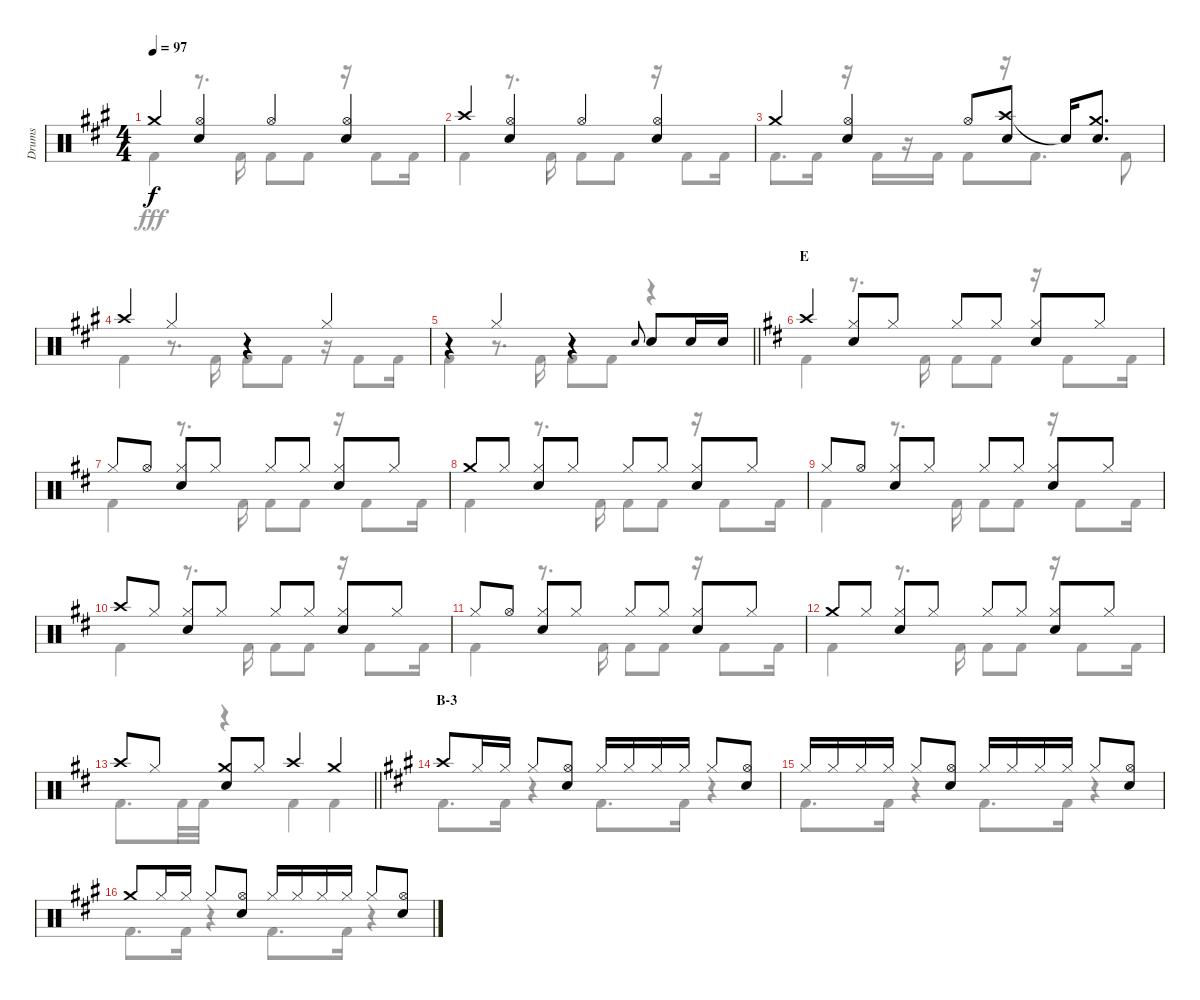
\track ("Drums" "Drums") {instrument percussion}
\staff {score}
\articulation defaults
\voice
\ts (4 4)
\tempo 97
\clef neutral
\ks a "Crash medium (hit)".4{dy f}
("Hi-Hat (open)" "Snare (hit) 2").4 "Hi-Hat (open)".4 ("Hi-Hat (open)" "Snare (hit) 2").4 |
"Crash high (hit)".4 ("Hi-Hat (open)" "Snare (hit) 2").4 "Hi-Hat (open)".4 ("Hi-Hat (open)" "Snare (hit) 2").4 |
"Crash medium (hit)".4 ("Hi-Hat (open)" "Snare (hit) 2").4 "Hi-Hat (open)".8 ("Crash high (hit)" "Snare (hit) 2").8 "Snare (hit)"{t}.16 ("Crash medium (hit)" "Snare (hit) 2").8{d} |
"Crash high (hit)".4 "Hi-Hat (closed)".4 r.4 "Hi-Hat (closed)".4 |
\barLineRight lightlight
r.4 "Hi-Hat (closed)".4 r.4 "Snare (hit) 2".8{gr onbeat} "Snare (hit) 2".8 "Snare (hit) 2".16 "Snare (hit) 2".16 |
\section ("" "E")
\ks d "Crash high (hit)".4
("Hi-Hat (closed)" "Snare (hit) 2").8 "Hi-Hat (closed)".8 "Hi-Hat (closed)".8 "Hi-Hat (closed)".8 ("Hi-Hat (closed)" "Snare (hit) 2").8 "Hi-Hat (closed)".8 |
"Hi-Hat (closed)".8 "Hi-Hat (open)".8 ("Hi-Hat (closed)" "Snare (hit) 2").8 "Hi-Hat (closed)".8 "Hi-Hat (closed)".8 "Hi-Hat (closed)".8 ("Hi-Hat (closed)" "Snare (hit) 2").8 "Hi-Hat (closed)".8 |
"Crash medium (hit)".8 "Hi-Hat (closed)".8 ("Hi-Hat (closed)" "Snare (hit) 2").8 "Hi-Hat (closed)".8 "Hi-Hat (closed)".8 "Hi-Hat (closed)".8 ("Hi-Hat (closed)" "Snare (hit) 2").8 "Hi-Hat (closed)".8 |
"Hi-Hat (closed)".8 "Hi-Hat (open)".8 ("Hi-Hat (closed)" "Snare (hit) 2").8 "Hi-Hat (closed)".8 "Hi-Hat (closed)".8 "Hi-Hat (closed)".8 ("Hi-Hat (closed)" "Snare (hit) 2").8 "Hi-Hat (closed)".8 |
"Crash high (hit)".8 "Hi-Hat (closed)".8 ("Hi-Hat (closed)" "Snare (hit) 2").8 "Hi-Hat (closed)".8 "Hi-Hat (closed)".8 "Hi-Hat (closed)".8 ("Hi-Hat (closed)" "Snare (hit) 2").8 "Hi-Hat (closed)".8 |
"Hi-Hat (closed)".8 "Hi-Hat (open)".8 ("Hi-Hat (closed)" "Snare (hit) 2").8 "Hi-Hat (closed)".8 "Hi-Hat (closed)".8 "Hi-Hat (closed)".8 ("Hi-Hat (closed)" "Snare (hit) 2").8 "Hi-Hat (closed)".8 |
"Crash medium (hit)".8 "Hi-Hat (closed)".8 ("Hi-Hat (closed)" "Snare (hit) 2").8 "Hi-Hat (closed)".8 "Hi-Hat (closed)".8 "Hi-Hat (closed)".8 ("Hi-Hat (closed)" "Snare (hit) 2").8 "Hi-Hat (closed)".8 |
\barLineRight lightlight "Crash high (hit)".8 "Hi-Hat (closed)".8
("Crash medium (hit)" "Snare (hit) 2").8 "Hi-Hat (closed)".8 "Crash high (hit)".4 "Crash medium (hit)".4 |
\section ("" "B-3")
\ks a "Crash high (hit)".8 "Hi-Hat (closed)".16 "Hi-Hat (closed)".16 "Hi-Hat (closed)".8
("Hi-Hat (open)" "Snare (hit) 2").8 "Hi-Hat (closed)".16 "Hi-Hat (closed)".16 "Hi-Hat (closed)".16 "Hi-Hat (closed)".16 "Hi-Hat (closed)".8 ("Hi-Hat (open)" "Snare (hit) 2").8 |
"Hi-Hat (closed)".16 "Hi-Hat (closed)".16 "Hi-Hat (closed)".16 "Hi-Hat (closed)".16 "Hi-Hat (closed)".8 ("Hi-Hat (open)" "Snare (hit) 2").8 "Hi-Hat (closed)".16 "Hi-Hat (closed)".16 "Hi-Hat (closed)".16 "Hi-Hat (closed)".16 "Hi-Hat (closed)".8 ("Hi-Hat (open)" "Snare (hit) 2").8 |
"Crash medium (hit)".8 "Hi-Hat (closed)".16 "Hi-Hat (closed)".16 "Hi-Hat (closed)".8 ("Hi-Hat (open)" "Snare (hit) 2").8 "Hi-Hat (closed)".16 "Hi-Hat (closed)".16 "Hi-Hat (closed)".16 "Hi-Hat (closed)".16 "Hi-Hat (closed)".8 ("Hi-Hat (open)" "Snare (hit) 2").8
\voice
\clef neutral
\ottava regular
\simile none
\ks a "Kick (hit) 2".4{dy fff}
r.8{d} "Kick (hit) 2".16 "Kick (hit) 2".8 "Kick (hit) 2".8 r.16 "Kick (hit) 2".8 "Kick (hit) 2".16 |
"Kick (hit) 2".4 r.8{d} "Kick (hit) 2".16 "Kick (hit) 2".8 "Kick (hit) 2".8 r.16 "Kick (hit) 2".8 "Kick (hit) 2".16 |
"Kick (hit) 2".8{d} "Kick (hit) 2".16 r.16 "Kick (hit) 2".16 r.16 "Kick (hit) 2".16 "Kick (hit) 2".8 r.16 "Kick (hit) 2".8{d} "Kick (hit) 2".8 |
"Kick (hit) 2".4 r.8{d} "Kick (hit) 2".16 "Kick (hit) 2".8 "Kick (hit) 2".8 r.16 "Kick (hit) 2".8 "Kick (hit) 2".16 |
\barLineRight lightlight "Kick (hit) 2".4
r.8{d} "Kick (hit) 2".16 "Kick (hit) 2".8 "Kick (hit) 2".8 r.4 |
\ks d "Kick (hit) 2".4
r.8{d} "Kick (hit) 2".16 "Kick (hit) 2".8 "Kick (hit) 2".8 r.16 "Kick (hit) 2".8 "Kick (hit) 2".16 |
"Kick (hit) 2".4 r.8{d} "Kick (hit) 2".16 "Kick (hit) 2".8 "Kick (hit) 2".8 r.16 "Kick (hit) 2".8 "Kick (hit) 2".16 |
"Kick (hit) 2".4 r.8{d} "Kick (hit) 2".16 "Kick (hit) 2".8 "Kick (hit) 2".8 r.16 "Kick (hit) 2".8 "Kick (hit) 2".16 |
"Kick (hit) 2".4 r.8{d} "Kick (hit) 2".16 "Kick (hit) 2".8 "Kick (hit) 2".8 r.16 "Kick (hit) 2".8 "Kick (hit) 2".16 |
"Kick (hit) 2".4 r.8{d} "Kick (hit) 2".16 "Kick (hit) 2".8 "Kick (hit) 2".8 r.16 "Kick (hit) 2".8 "Kick (hit) 2".16 |
"Kick (hit) 2".4 r.8{d} "Kick (hit) 2".16 "Kick (hit) 2".8 "Kick (hit) 2".8 r.16 "Kick (hit) 2".8 "Kick (hit) 2".16 |
"Kick (hit) 2".4 r.8{d} "Kick (hit) 2".16 "Kick (hit) 2".8 "Kick (hit) 2".8 r.16 "Kick (hit) 2".8 "Kick (hit) 2".16 |
\barLineRight lightlight "Kick (hit) 2".8{d} "Kick (hit) 2".32 "Kick (hit) 2".32
r.4 "Kick (hit) 2".4 "Kick (hit) 2".4 |
\ks a "Kick (hit) 2".8{d} "Kick (hit) 2".16
r.4 "Kick (hit) 2".8{d} "Kick (hit) 2".16 r.4 |
"Kick (hit) 2".8{d} "Kick (hit) 2".16 r.4 "Kick (hit) 2".8{d} "Kick (hit) 2".16 r.4 |
"Kick (hit) 2".8{d} "Kick (hit) 2".16 r.4 "Kick (hit) 2".8{d} "Kick (hit) 2".16 r.4
